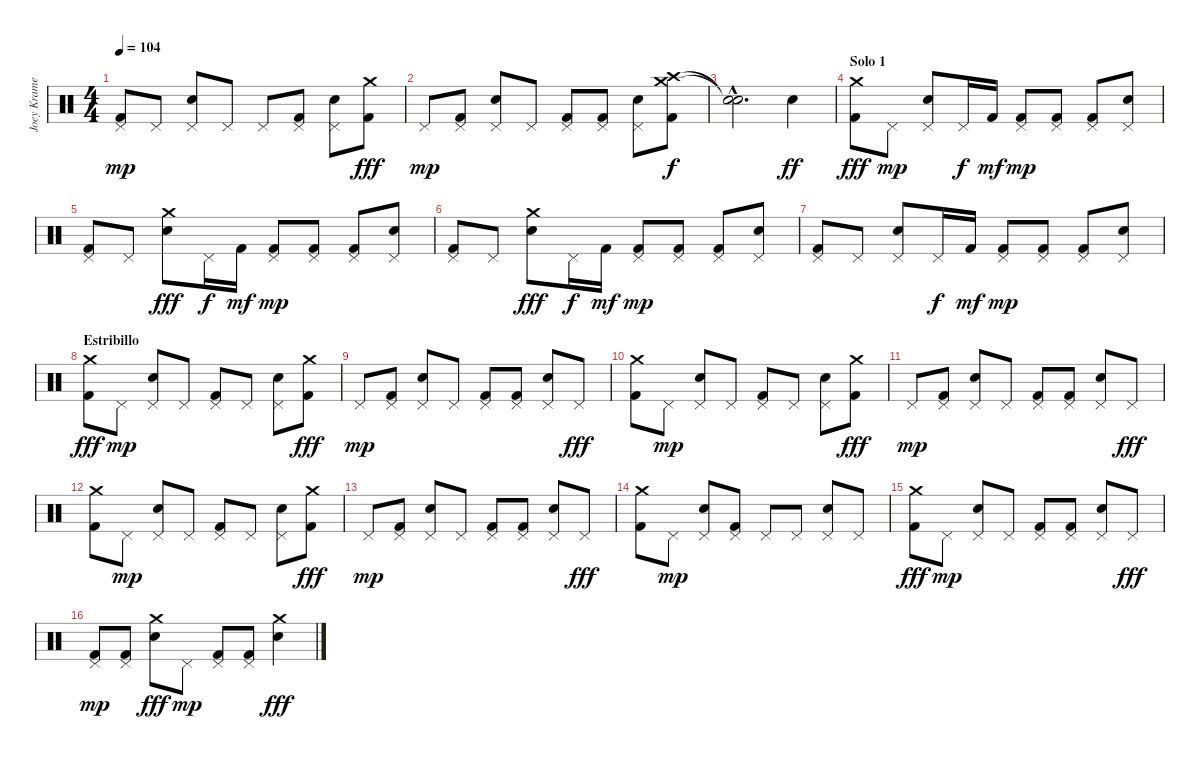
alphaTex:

\track ("Joey Kramer" "Joey Krame") {instrument percussion}
\staff {score}
\articulation defaults
\ts (4 4)
\tempo 104
\clef neutral
\ks c
("Pedal Hi-Hat (hit)" "Kick (hit) 2").8{dy mp} "Pedal Hi-Hat (hit)".8 ("Pedal Hi-Hat (hit)" "Snare (hit) 2").8 "Pedal Hi-Hat (hit)".8 "Pedal Hi-Hat (hit)".8 ("Pedal Hi-Hat (hit)" "Kick (hit) 2").8 ("Pedal Hi-Hat (hit)" "Snare (hit) 2").8 ("Crash medium (hit)" "Kick (hit) 2").8{dy fff} |
"Pedal Hi-Hat (hit)".8{dy mp} ("Pedal Hi-Hat (hit)" "Kick (hit) 2").8 ("Pedal Hi-Hat (hit)" "Snare (hit) 2").8 "Pedal Hi-Hat (hit)".8 ("Pedal Hi-Hat (hit)" "Kick (hit) 2").8 ("Pedal Hi-Hat (hit)" "Kick (hit) 2").8 ("Pedal Hi-Hat (hit)" "Snare (hit) 2").8 ("Crash medium (hit)" "Crash high (hit)" "Kick (hit) 2").8{dy f} |
("Snare (hit)"{hac t} "Snare (hit)"{hac t}).2{d} "Snare (hit) 2".4{dy ff} |
\section ("" "Solo 1")
("Crash medium (hit)" "Kick (hit) 2").8{dy fff} "Pedal Hi-Hat (hit)".8{dy mp} ("Pedal Hi-Hat (hit)" "Snare (hit) 2").8 "Pedal Hi-Hat (hit)".16{dy f} "Kick (hit) 2".16{dy mf} ("Pedal Hi-Hat (hit)" "Kick (hit) 2").8{dy mp} ("Pedal Hi-Hat (hit)" "Kick (hit) 2").8 ("Pedal Hi-Hat (hit)" "Kick (hit) 2").8 ("Pedal Hi-Hat (hit)" "Snare (hit) 2").8 |
("Pedal Hi-Hat (hit)" "Kick (hit) 2").8 "Pedal Hi-Hat (hit)".8 ("Crash medium (hit)" "Snare (hit) 2").8{dy fff} "Pedal Hi-Hat (hit)".16{dy f} "Kick (hit) 2".16{dy mf} ("Pedal Hi-Hat (hit)" "Kick (hit) 2").8{dy mp} ("Pedal Hi-Hat (hit)" "Kick (hit) 2").8 ("Pedal Hi-Hat (hit)" "Kick (hit) 2").8 ("Pedal Hi-Hat (hit)" "Snare (hit) 2").8 |
("Pedal Hi-Hat (hit)" "Kick (hit) 2").8 "Pedal Hi-Hat (hit)".8 ("Crash medium (hit)" "Snare (hit) 2").8{dy fff} "Pedal Hi-Hat (hit)".16{dy f} "Kick (hit) 2".16{dy mf} ("Pedal Hi-Hat (hit)" "Kick (hit) 2").8{dy mp} ("Pedal Hi-Hat (hit)" "Kick (hit) 2").8 ("Pedal Hi-Hat (hit)" "Kick (hit) 2").8 ("Pedal Hi-Hat (hit)" "Snare (hit) 2").8 |
("Pedal Hi-Hat (hit)" "Kick (hit) 2").8 "Pedal Hi-Hat (hit)".8 ("Pedal Hi-Hat (hit)" "Snare (hit) 2").8 "Pedal Hi-Hat (hit)".16{dy f} "Kick (hit) 2".16{dy mf} ("Pedal Hi-Hat (hit)" "Kick (hit) 2").8{dy mp} ("Pedal Hi-Hat (hit)" "Kick (hit) 2").8 ("Pedal Hi-Hat (hit)" "Kick (hit) 2").8 ("Pedal Hi-Hat (hit)" "Snare (hit) 2").8 |
\section ("" "Estribillo")
("Crash medium (hit)" "Kick (hit) 2").8{dy fff} "Pedal Hi-Hat (hit)".8{dy mp} ("Pedal Hi-Hat (hit)" "Snare (hit) 2").8 "Pedal Hi-Hat (hit)".8 ("Pedal Hi-Hat (hit)" "Kick (hit) 2").8 "Pedal Hi-Hat (hit)".8 ("Pedal Hi-Hat (hit)" "Snare (hit) 2").8 ("Crash medium (hit)" "Kick (hit) 2").8{dy fff} |
"Pedal Hi-Hat (hit)".8{dy mp} ("Pedal Hi-Hat (hit)" "Kick (hit) 2").8 ("Pedal Hi-Hat (hit)" "Snare (hit) 2").8 "Pedal Hi-Hat (hit)".8 ("Pedal Hi-Hat (hit)" "Kick (hit) 2").8 ("Pedal Hi-Hat (hit)" "Kick (hit) 2").8 ("Pedal Hi-Hat (hit)" "Snare (hit) 2").8 "Pedal Hi-Hat (hit)".8{dy fff} |
("Crash medium (hit)" "Kick (hit) 2").8 "Pedal Hi-Hat (hit)".8{dy mp} ("Pedal Hi-Hat (hit)" "Snare (hit) 2").8 "Pedal Hi-Hat (hit)".8 ("Pedal Hi-Hat (hit)" "Kick (hit) 2").8 "Pedal Hi-Hat (hit)".8 ("Pedal Hi-Hat (hit)" "Snare (hit) 2").8 ("Crash medium (hit)" "Kick (hit) 2").8{dy fff} |
"Pedal Hi-Hat (hit)".8{dy mp} ("Pedal Hi-Hat (hit)" "Kick (hit) 2").8 ("Pedal Hi-Hat (hit)" "Snare (hit) 2").8 "Pedal Hi-Hat (hit)".8 ("Pedal Hi-Hat (hit)" "Kick (hit) 2").8 ("Pedal Hi-Hat (hit)" "Kick (hit) 2").8 ("Pedal Hi-Hat (hit)" "Snare (hit) 2").8 "Pedal Hi-Hat (hit)".8{dy fff} |
("Crash medium (hit)" "Kick (hit) 2").8 "Pedal Hi-Hat (hit)".8{dy mp} ("Pedal Hi-Hat (hit)" "Snare (hit) 2").8 "Pedal Hi-Hat (hit)".8 ("Pedal Hi-Hat (hit)" "Kick (hit) 2").8 "Pedal Hi-Hat (hit)".8 ("Pedal Hi-Hat (hit)" "Snare (hit) 2").8 ("Crash medium (hit)" "Kick (hit) 2").8{dy fff} |
"Pedal Hi-Hat (hit)".8{dy mp} ("Pedal Hi-Hat (hit)" "Kick (hit) 2").8 ("Pedal Hi-Hat (hit)" "Snare (hit) 2").8 "Pedal Hi-Hat (hit)".8 ("Pedal Hi-Hat (hit)" "Kick (hit) 2").8 ("Pedal Hi-Hat (hit)" "Kick (hit) 2").8 ("Pedal Hi-Hat (hit)" "Snare (hit) 2").8 "Pedal Hi-Hat (hit)".8{dy fff} |
("Crash medium (hit)" "Kick (hit) 2").8 "Pedal Hi-Hat (hit)".8{dy mp} ("Pedal Hi-Hat (hit)" "Snare (hit) 2").8 ("Pedal Hi-Hat (hit)" "Kick (hit) 2").8 "Pedal Hi-Hat (hit)".8 "Pedal Hi-Hat (hit)".8 ("Pedal Hi-Hat (hit)" "Snare (hit) 2").8 "Pedal Hi-Hat (hit)".8 |
("Crash medium (hit)" "Kick (hit) 2").8{dy fff} "Pedal Hi-Hat (hit)".8{dy mp} ("Pedal Hi-Hat (hit)" "Snare (hit) 2").8 "Pedal Hi-Hat (hit)".8 ("Pedal Hi-Hat (hit)" "Kick (hit) 2").8 ("Pedal Hi-Hat (hit)" "Kick (hit) 2").8 ("Pedal Hi-Hat (hit)" "Snare (hit) 2").8 "Pedal Hi-Hat (hit)".8{dy fff} |
("Pedal Hi-Hat (hit)" "Kick (hit) 2").8{dy mp} ("Pedal Hi-Hat (hit)" "Kick (hit) 2").8 ("Crash medium (hit)" "Snare (hit) 2").8{dy fff} "Pedal Hi-Hat (hit)".8{dy mp} ("Pedal Hi-Hat (hit)" "Kick (hit) 2").8 ("Pedal Hi-Hat (hit)" "Kick (hit) 2").8 ("Crash medium (hit)" "Snare (hit) 2").4{dy fff}
